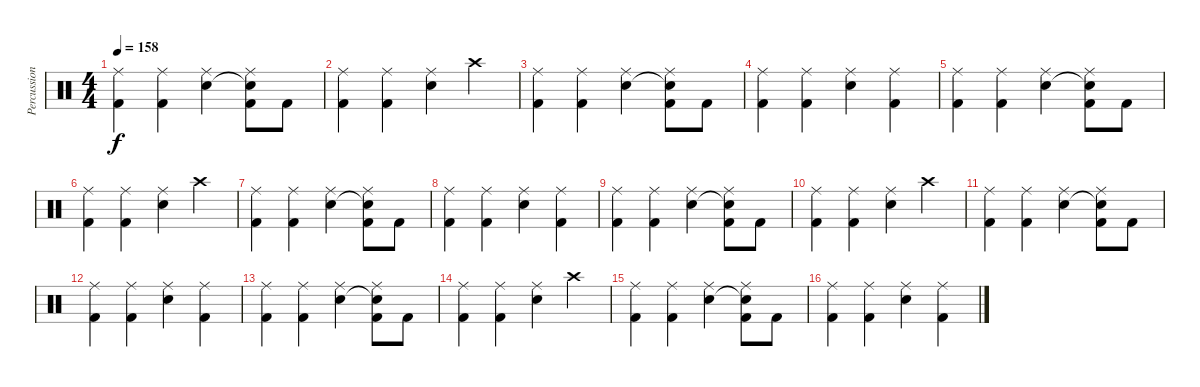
\track ("Percussions" "Percussion") {instrument percussion}
\staff {score}
\articulation defaults
\ts (4 4)
\tempo 158
\clef neutral
\ks c
("Ride (middle)" "Kick (hit) 2").4{dy f} ("Ride (middle)" "Kick (hit) 2").4 ("Ride (middle)" "Electric Snare (hit)").4 ("Ride (middle)" "Snare (hit)"{t} "Kick (hit) 2").8 "Kick (hit) 2".8 |
("Ride (middle)" "Kick (hit) 2").4 ("Ride (middle)" "Kick (hit) 2").4 ("Ride (middle)" "Electric Snare (hit)").4 "Crash high (hit)".4 |
("Ride (middle)" "Kick (hit) 2").4 ("Ride (middle)" "Kick (hit) 2").4 ("Ride (middle)" "Electric Snare (hit)").4 ("Ride (middle)" "Snare (hit)"{t} "Kick (hit) 2").8 "Kick (hit) 2".8 |
("Ride (middle)" "Kick (hit) 2").4 ("Ride (middle)" "Kick (hit) 2").4 ("Ride (middle)" "Electric Snare (hit)").4 ("Ride (middle)" "Kick (hit) 2").4 |
("Ride (middle)" "Kick (hit) 2").4 ("Ride (middle)" "Kick (hit) 2").4 ("Ride (middle)" "Electric Snare (hit)").4 ("Ride (middle)" "Snare (hit)"{t} "Kick (hit) 2").8 "Kick (hit) 2".8 |
("Ride (middle)" "Kick (hit) 2").4 ("Ride (middle)" "Kick (hit) 2").4 ("Ride (middle)" "Electric Snare (hit)").4 "Crash high (hit)".4 |
("Ride (middle)" "Kick (hit) 2").4 ("Ride (middle)" "Kick (hit) 2").4 ("Ride (middle)" "Electric Snare (hit)").4 ("Ride (middle)" "Snare (hit)"{t} "Kick (hit) 2").8 "Kick (hit) 2".8 |
("Ride (middle)" "Kick (hit) 2").4 ("Ride (middle)" "Kick (hit) 2").4 ("Ride (middle)" "Electric Snare (hit)").4 ("Ride (middle)" "Kick (hit) 2").4 |
("Ride (middle)" "Kick (hit) 2").4 ("Ride (middle)" "Kick (hit) 2").4 ("Ride (middle)" "Electric Snare (hit)").4 ("Ride (middle)" "Snare (hit)"{t} "Kick (hit) 2").8 "Kick (hit) 2".8 |
("Ride (middle)" "Kick (hit) 2").4 ("Ride (middle)" "Kick (hit) 2").4 ("Ride (middle)" "Electric Snare (hit)").4 "Crash high (hit)".4 |
("Ride (middle)" "Kick (hit) 2").4 ("Ride (middle)" "Kick (hit) 2").4 ("Ride (middle)" "Electric Snare (hit)").4 ("Ride (middle)" "Snare (hit)"{t} "Kick (hit) 2").8 "Kick (hit) 2".8 |
("Ride (middle)" "Kick (hit) 2").4 ("Ride (middle)" "Kick (hit) 2").4 ("Ride (middle)" "Electric Snare (hit)").4 ("Ride (middle)" "Kick (hit) 2").4 |
("Ride (middle)" "Kick (hit) 2").4 ("Ride (middle)" "Kick (hit) 2").4 ("Ride (middle)" "Electric Snare (hit)").4 ("Ride (middle)" "Snare (hit)"{t} "Kick (hit) 2").8 "Kick (hit) 2".8 |
("Ride (middle)" "Kick (hit) 2").4 ("Ride (middle)" "Kick (hit) 2").4 ("Ride (middle)" "Electric Snare (hit)").4 "Crash high (hit)".4 |
("Ride (middle)" "Kick (hit) 2").4 ("Ride (middle)" "Kick (hit) 2").4 ("Ride (middle)" "Electric Snare (hit)").4 ("Ride (middle)" "Snare (hit)"{t} "Kick (hit) 2").8 "Kick (hit) 2".8 |
("Ride (middle)" "Kick (hit) 2").4 ("Ride (middle)" "Kick (hit) 2").4 ("Ride (middle)" "Electric Snare (hit)").4 ("Ride (middle)" "Kick (hit) 2").4
